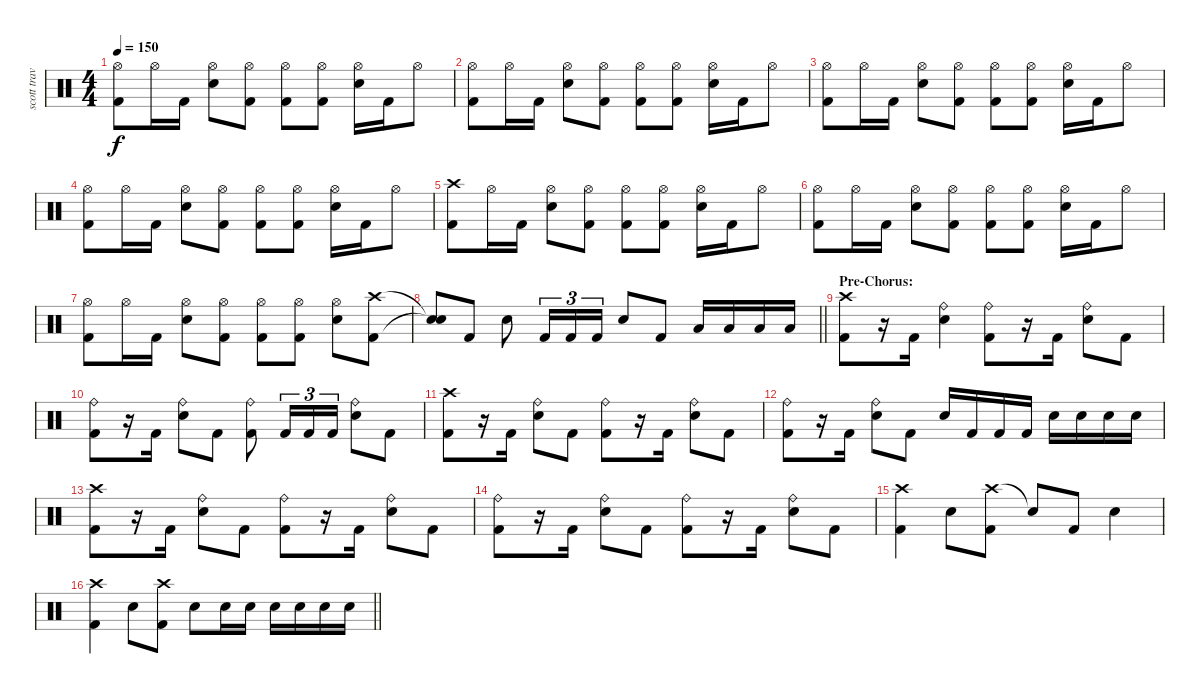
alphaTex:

\track ("scott travis" "scott trav") {instrument percussion}
\staff {score}
\articulation defaults
\ts (4 4)
\tempo 150
\clef neutral
\ks c
("Hi-Hat (open)" "Kick (hit) 2").8{dy f} "Hi-Hat (open)".16 "Kick (hit) 2".16 ("Hi-Hat (open)" "Snare (hit) 2").8 ("Hi-Hat (open)" "Kick (hit) 2").8 ("Hi-Hat (open)" "Kick (hit) 2").8 ("Hi-Hat (open)" "Kick (hit) 2").8 ("Hi-Hat (open)" "Snare (hit) 2").16 "Kick (hit) 2".16 "Hi-Hat (open)".8 |
("Hi-Hat (open)" "Kick (hit) 2").8 "Hi-Hat (open)".16 "Kick (hit) 2".16 ("Hi-Hat (open)" "Snare (hit) 2").8 ("Hi-Hat (open)" "Kick (hit) 2").8 ("Hi-Hat (open)" "Kick (hit) 2").8 ("Hi-Hat (open)" "Kick (hit) 2").8 ("Hi-Hat (open)" "Snare (hit) 2").16 "Kick (hit) 2".16 "Hi-Hat (open)".8 |
("Hi-Hat (open)" "Kick (hit) 2").8 "Hi-Hat (open)".16 "Kick (hit) 2".16 ("Hi-Hat (open)" "Snare (hit) 2").8 ("Hi-Hat (open)" "Kick (hit) 2").8 ("Hi-Hat (open)" "Kick (hit) 2").8 ("Hi-Hat (open)" "Kick (hit) 2").8 ("Hi-Hat (open)" "Snare (hit) 2").16 "Kick (hit) 2".16 "Hi-Hat (open)".8 |
("Hi-Hat (open)" "Kick (hit) 2").8 "Hi-Hat (open)".16 "Kick (hit) 2".16 ("Hi-Hat (open)" "Snare (hit) 2").8 ("Hi-Hat (open)" "Kick (hit) 2").8 ("Hi-Hat (open)" "Kick (hit) 2").8 ("Hi-Hat (open)" "Kick (hit) 2").8 ("Hi-Hat (open)" "Snare (hit) 2").16 "Kick (hit) 2".16 "Hi-Hat (open)".8 |
("Crash high (hit)" "Kick (hit) 2").8 "Hi-Hat (open)".16 "Kick (hit) 2".16 ("Hi-Hat (open)" "Snare (hit) 2").8 ("Hi-Hat (open)" "Kick (hit) 2").8 ("Hi-Hat (open)" "Kick (hit) 2").8 ("Hi-Hat (open)" "Kick (hit) 2").8 ("Hi-Hat (open)" "Snare (hit) 2").16 "Kick (hit) 2".16 "Hi-Hat (open)".8 |
("Hi-Hat (open)" "Kick (hit) 2").8 "Hi-Hat (open)".16 "Kick (hit) 2".16 ("Hi-Hat (open)" "Snare (hit) 2").8 ("Hi-Hat (open)" "Kick (hit) 2").8 ("Hi-Hat (open)" "Kick (hit) 2").8 ("Hi-Hat (open)" "Kick (hit) 2").8 ("Hi-Hat (open)" "Snare (hit) 2").16 "Kick (hit) 2".16 "Hi-Hat (open)".8 |
("Hi-Hat (open)" "Kick (hit) 2").8 "Hi-Hat (open)".16 "Kick (hit) 2".16 ("Hi-Hat (open)" "Snare (hit) 2").8 ("Hi-Hat (open)" "Kick (hit) 2").8 ("Hi-Hat (open)" "Kick (hit) 2").8 ("Hi-Hat (open)" "Kick (hit) 2").8 ("Hi-Hat (open)" "Snare (hit) 2").8 ("Crash high (hit)" "Kick (hit) 2").8 |
\barLineRight lightlight
("Snare (hit)"{t} "Snare (hit)"{t}).8 "Kick (hit) 2".8 "Snare (hit) 2".8 "Kick (hit) 2".16{tu (3 2)} "Kick (hit) 2".16{tu (3 2)} "Kick (hit) 2".16{tu (3 2)} "Snare (hit) 2".8 "Kick (hit) 2".8 "Low Floor Tom (hit)".16 "Low Floor Tom (hit)".16 "Low Floor Tom (hit)".16 "Low Floor Tom (hit)".16 |
\section ("" "Pre-Chorus:")
("Crash high (hit)" "Kick (hit) 2").8 r.16 "Kick (hit) 2".16 ("Ride (bell)" "Snare (hit) 2").4 ("Ride (bell)" "Kick (hit) 2").8 r.16 "Kick (hit) 2".16 ("Ride (bell)" "Snare (hit) 2").8 "Kick (hit) 2".8 |
("Ride (bell)" "Kick (hit) 2").8 r.16 "Kick (hit) 2".16 ("Ride (bell)" "Snare (hit) 2").8 "Kick (hit) 2".8 ("Ride (bell)" "Kick (hit) 2").8 "Kick (hit) 2".16{tu (3 2)} "Kick (hit) 2".16{tu (3 2)} "Kick (hit) 2".16{tu (3 2)} ("Ride (bell)" "Snare (hit) 2").8 "Kick (hit) 2".8 |
("Crash high (hit)" "Kick (hit) 2").8 r.16 "Kick (hit) 2".16 ("Ride (bell)" "Snare (hit) 2").8 "Kick (hit) 2".8 ("Ride (bell)" "Kick (hit) 2").8 r.16 "Kick (hit) 2".16 ("Ride (bell)" "Snare (hit) 2").8 "Kick (hit) 2".8 |
("Ride (bell)" "Kick (hit) 2").8 r.16 "Kick (hit) 2".16 ("Ride (bell)" "Snare (hit) 2").8 "Kick (hit) 2".8 "Snare (hit) 2".16 "Kick (hit) 2".16 "Kick (hit) 2".16 "Kick (hit) 2".16 "Snare (hit) 2".16 "Snare (hit) 2".16 "Snare (hit) 2".16 "Snare (hit) 2".16 |
("Crash high (hit)" "Kick (hit) 2").8 r.16 "Kick (hit) 2".16 ("Ride (bell)" "Snare (hit) 2").8 "Kick (hit) 2".8 ("Ride (bell)" "Kick (hit) 2").8 r.16 "Kick (hit) 2".16 ("Ride (bell)" "Snare (hit) 2").8 "Kick (hit) 2".8 |
("Ride (bell)" "Kick (hit) 2").8 r.16 "Kick (hit) 2".16 ("Ride (bell)" "Snare (hit) 2").8 "Kick (hit) 2".8 ("Ride (bell)" "Kick (hit) 2").8 r.16 "Kick (hit) 2".16 ("Ride (bell)" "Snare (hit) 2").8 "Kick (hit) 2".8 |
("Crash high (hit)" "Kick (hit) 2").4 "Snare (hit) 2".8 ("Crash high (hit)" "Kick (hit) 2").8 "Snare (hit)"{t}.8 "Kick (hit) 2".8 "Snare (hit) 2".4 |
\barLineRight lightlight
("Crash high (hit)" "Kick (hit) 2").4 "Snare (hit) 2".8 ("Crash high (hit)" "Kick (hit) 2").8 "Snare (hit) 2".8 "Snare (hit) 2".16 "Snare (hit) 2".16 "Snare (hit) 2".16 "Snare (hit) 2".16 "Snare (hit) 2".16 "Snare (hit) 2".16
